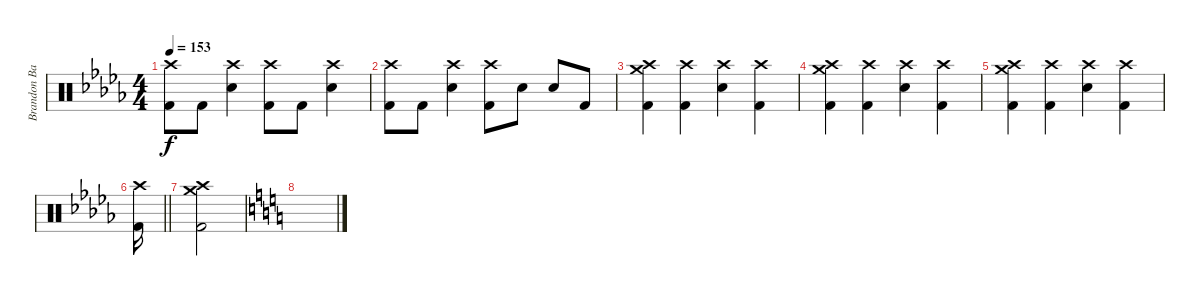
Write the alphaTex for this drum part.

\track ("Brandon Barnes" "Brandon Ba") {instrument percussion}
\staff {score}
\articulation defaults
\ts (4 4)
\tempo 153
\clef neutral
\ks db
("Crash high (hit)" "Kick (hit) 2").8{dy f} "Kick (hit) 2".8 ("Crash high (hit)" "Snare (hit) 2").4 ("Crash high (hit)" "Kick (hit) 2").8 "Kick (hit) 2".8 ("Crash high (hit)" "Snare (hit) 2").4 |
("Crash high (hit)" "Kick (hit) 2").8 "Kick (hit) 2".8 ("Crash high (hit)" "Snare (hit) 2").4 ("Crash high (hit)" "Kick (hit) 2").8 "Snare (hit) 2".8 "Snare (hit) 2".8 "Kick (hit) 2".8 |
("Crash high (hit)" "Crash medium (hit)" "Kick (hit) 2").4 ("Crash high (hit)" "Kick (hit) 2").4 ("Crash high (hit)" "Snare (hit) 2").4 ("Crash high (hit)" "Kick (hit) 2").4 |
("Crash high (hit)" "Crash medium (hit)" "Kick (hit) 2").4 ("Crash high (hit)" "Kick (hit) 2").4 ("Crash high (hit)" "Snare (hit) 2").4 ("Crash high (hit)" "Kick (hit) 2").4 |
("Crash high (hit)" "Crash medium (hit)" "Kick (hit) 2").4 ("Crash high (hit)" "Kick (hit) 2").4 ("Crash high (hit)" "Snare (hit) 2").4 ("Crash high (hit)" "Kick (hit) 2").4 |
\barLineRight lightlight
("Crash high (hit)" "Kick (hit) 2").16 |
("Crash high (hit)" "Crash medium (hit)" "Kick (hit) 2").2 |
\ks c
